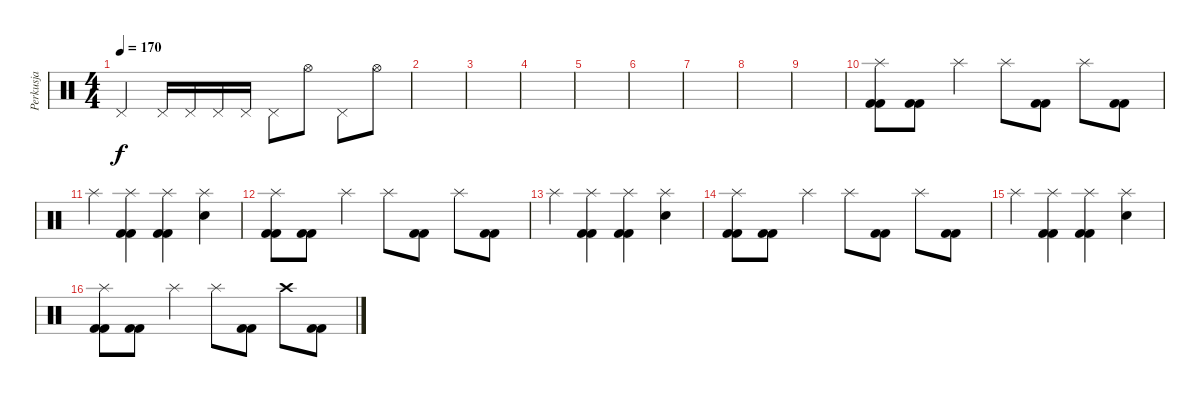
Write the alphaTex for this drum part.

\track ("Perkusja" "Perkusja") {instrument percussion}
\staff {score}
\articulation defaults
\ts (4 4)
\tempo 170
\clef neutral
\ks c "Pedal Hi-Hat (hit)".4{dy f} "Pedal Hi-Hat (hit)".16 "Pedal Hi-Hat (hit)".16 "Pedal Hi-Hat (hit)".16 "Pedal Hi-Hat (hit)".16 "Pedal Hi-Hat (hit)".8 "Hi-Hat (open)".8 "Pedal Hi-Hat (hit)".8 "Hi-Hat (open)".8
|
|
|
|
|
|
|
|
|
("Splash (hit)" "Kick (hit) 2" "Kick (hit) 2").8 ("Kick (hit) 2" "Kick (hit) 2").8 "Splash (hit)".4 "Splash (hit)".8 ("Kick (hit) 2" "Kick (hit) 2").8 "Splash (hit)".8 ("Kick (hit) 2" "Kick (hit) 2").8 |
"Splash (hit)".4 ("Splash (hit)" "Kick (hit) 2" "Kick (hit) 2").4 ("Splash (hit)" "Kick (hit) 2" "Kick (hit) 2").4 ("Splash (hit)" "Electric Snare (hit)").4 |
("Splash (hit)" "Kick (hit) 2" "Kick (hit) 2").8 ("Kick (hit) 2" "Kick (hit) 2").8 "Splash (hit)".4 "Splash (hit)".8 ("Kick (hit) 2" "Kick (hit) 2").8 "Splash (hit)".8 ("Kick (hit) 2" "Kick (hit) 2").8 |
"Splash (hit)".4 ("Splash (hit)" "Kick (hit) 2" "Kick (hit) 2").4 ("Splash (hit)" "Kick (hit) 2" "Kick (hit) 2").4 ("Splash (hit)" "Electric Snare (hit)").4 |
("Splash (hit)" "Kick (hit) 2" "Kick (hit) 2").8 ("Kick (hit) 2" "Kick (hit) 2").8 "Splash (hit)".4 "Splash (hit)".8 ("Kick (hit) 2" "Kick (hit) 2").8 "Splash (hit)".8 ("Kick (hit) 2" "Kick (hit) 2").8 |
"Splash (hit)".4 ("Splash (hit)" "Kick (hit) 2" "Kick (hit) 2").4 ("Splash (hit)" "Kick (hit) 2" "Kick (hit) 2").4 ("Splash (hit)" "Electric Snare (hit)").4 |
("Splash (hit)" "Kick (hit) 2" "Kick (hit) 2").8 ("Kick (hit) 2" "Kick (hit) 2").8 "Splash (hit)".4 "Splash (hit)".8 ("Kick (hit) 2" "Kick (hit) 2").8 "Crash high (hit)".8 ("Kick (hit) 2" "Kick (hit) 2").8
